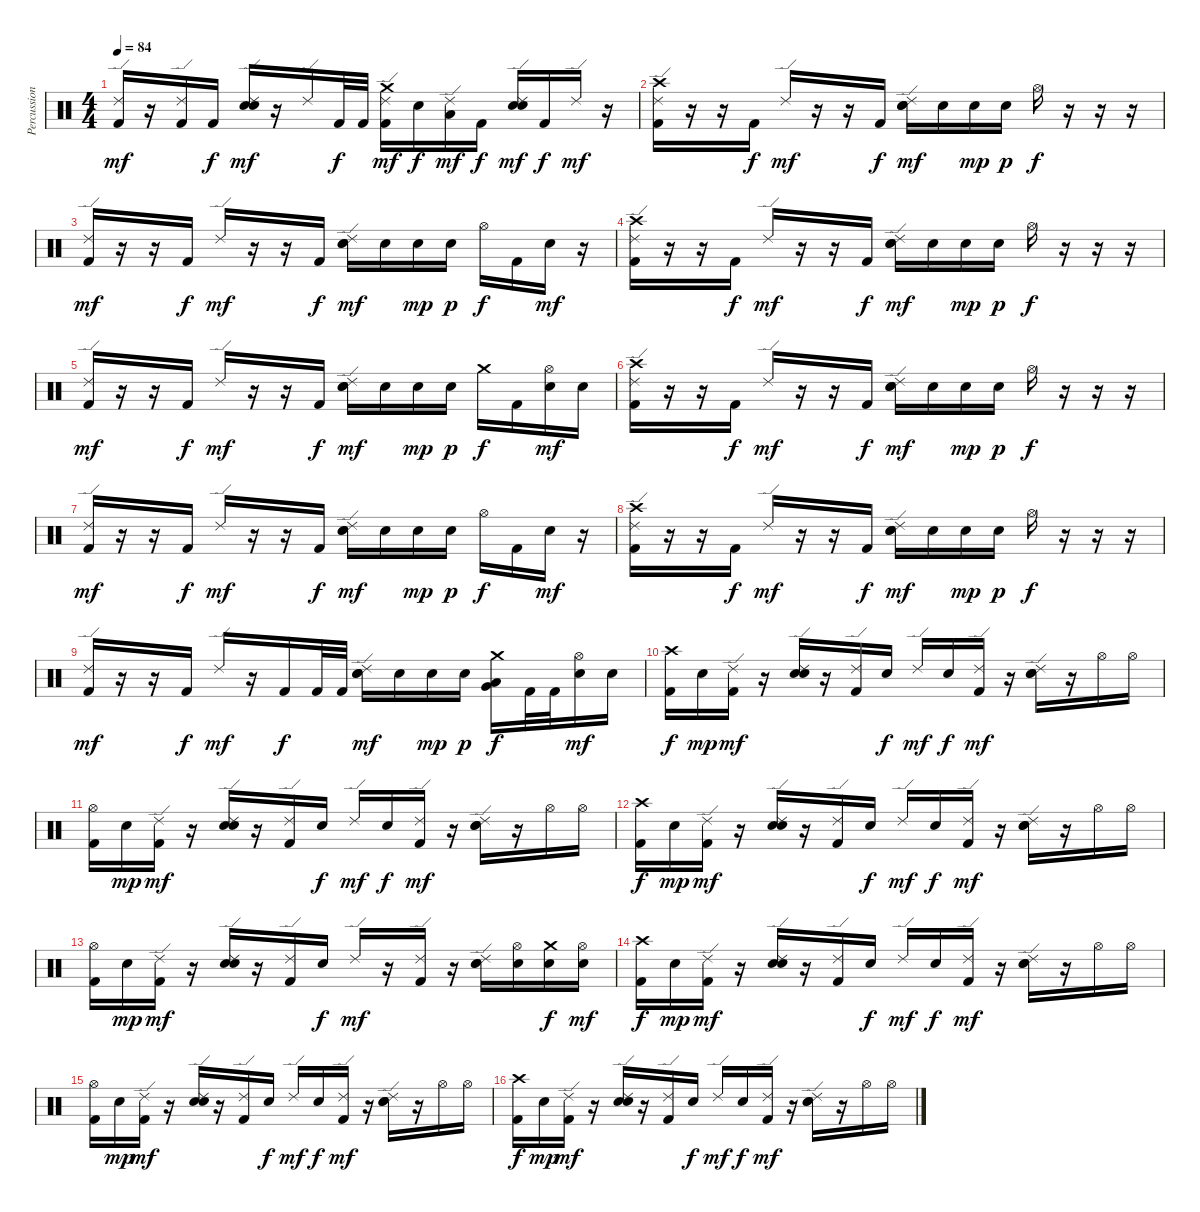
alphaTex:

\track ("Percussion" "Percussion") {instrument percussion}
\staff {score}
\articulation defaults
\ts (4 4)
\tempo 84
\clef neutral
\ks c
("Ride (edge) 2" "Kick (hit) 2").16{dy mf} r.16 ("Ride (edge) 2" "Kick (hit) 2").16 "Kick (hit) 2".16{dy f} ("Ride (edge) 2" "Snare (hit) 2" "Electric Snare (hit)").16{dy mf} r.16 "Ride (edge) 2".16 "Kick (hit) 2".32{dy f} "Kick (hit) 2".32 ("Ride (edge) 2" "Crash medium (hit)" "Kick (hit) 2").16{dy mf} "Electric Snare (hit)".16{dy f} ("Ride (edge) 2" "Low Tom (hit)").16{dy mf} "Kick (hit) 2".16{dy f} ("Ride (edge) 2" "Snare (hit) 2" "Electric Snare (hit)").16{dy mf} "Kick (hit) 2".16{dy f} "Ride (edge) 2".16{dy mf} r.16 |
("Ride (edge) 2" "Crash high (hit)" "Kick (hit) 2").16 r.16 r.16 "Kick (hit) 2".16{dy f} "Ride (edge) 2".16{dy mf} r.16 r.16 "Kick (hit) 2".16{dy f} ("Ride (edge) 2" "Snare (hit) 2" "Electric Snare (hit)").16{dy mf} "Electric Snare (hit)".16 "Electric Snare (hit)".16{dy mp} "Electric Snare (hit)".16{dy p} "Hi-Hat (open)".16{dy f} r.16 r.16 r.16 |
("Ride (edge) 2" "Kick (hit) 2").16{dy mf} r.16 r.16 "Kick (hit) 2".16{dy f} "Ride (edge) 2".16{dy mf} r.16 r.16 "Kick (hit) 2".16{dy f} ("Ride (edge) 2" "Snare (hit) 2" "Electric Snare (hit)").16{dy mf} "Electric Snare (hit)".16 "Electric Snare (hit)".16{dy mp} "Electric Snare (hit)".16{dy p} "Hi-Hat (open)".16{dy f} "Kick (hit) 2".16 "Electric Snare (hit)".16{dy mf} r.16 |
("Ride (edge) 2" "Crash high (hit)" "Kick (hit) 2").16 r.16 r.16 "Kick (hit) 2".16{dy f} "Ride (edge) 2".16{dy mf} r.16 r.16 "Kick (hit) 2".16{dy f} ("Ride (edge) 2" "Snare (hit) 2" "Electric Snare (hit)").16{dy mf} "Electric Snare (hit)".16 "Electric Snare (hit)".16{dy mp} "Electric Snare (hit)".16{dy p} "Hi-Hat (open)".16{dy f} r.16 r.16 r.16 |
("Ride (edge) 2" "Kick (hit) 2").16{dy mf} r.16 r.16 "Kick (hit) 2".16{dy f} "Ride (edge) 2".16{dy mf} r.16 r.16 "Kick (hit) 2".16{dy f} ("Ride (edge) 2" "Snare (hit) 2" "Electric Snare (hit)").16{dy mf} "Electric Snare (hit)".16 "Electric Snare (hit)".16{dy mp} "Electric Snare (hit)".16{dy p} "Crash medium (hit)".16{dy f} "Kick (hit) 2".16 ("Hi-Hat (open)" "Electric Snare (hit)").16{dy mf} "Electric Snare (hit)".16 |
("Ride (edge) 2" "Crash high (hit)" "Kick (hit) 2").16 r.16 r.16 "Kick (hit) 2".16{dy f} "Ride (edge) 2".16{dy mf} r.16 r.16 "Kick (hit) 2".16{dy f} ("Ride (edge) 2" "Snare (hit) 2" "Electric Snare (hit)").16{dy mf} "Electric Snare (hit)".16 "Electric Snare (hit)".16{dy mp} "Electric Snare (hit)".16{dy p} "Hi-Hat (open)".16{dy f} r.16 r.16 r.16 |
("Ride (edge) 2" "Kick (hit) 2").16{dy mf} r.16 r.16 "Kick (hit) 2".16{dy f} "Ride (edge) 2".16{dy mf} r.16 r.16 "Kick (hit) 2".16{dy f} ("Ride (edge) 2" "Snare (hit) 2" "Electric Snare (hit)").16{dy mf} "Electric Snare (hit)".16 "Electric Snare (hit)".16{dy mp} "Electric Snare (hit)".16{dy p} "Hi-Hat (open)".16{dy f} "Kick (hit) 2".16 "Electric Snare (hit)".16{dy mf} r.16 |
("Ride (edge) 2" "Crash high (hit)" "Kick (hit) 2").16 r.16 r.16 "Kick (hit) 2".16{dy f} "Ride (edge) 2".16{dy mf} r.16 r.16 "Kick (hit) 2".16{dy f} ("Ride (edge) 2" "Snare (hit) 2" "Electric Snare (hit)").16{dy mf} "Electric Snare (hit)".16 "Electric Snare (hit)".16{dy mp} "Electric Snare (hit)".16{dy p} "Hi-Hat (open)".16{dy f} r.16 r.16 r.16 |
("Ride (edge) 2" "Kick (hit) 2").16{dy mf} r.16 r.16 "Kick (hit) 2".16{dy f} "Ride (edge) 2".16{dy mf} r.16 "Kick (hit) 2".16{dy f} "Kick (hit) 2".32 "Kick (hit) 2".32 ("Ride (edge) 2" "Snare (hit) 2" "Electric Snare (hit)").16{dy mf} "Electric Snare (hit)".16 "Electric Snare (hit)".16{dy mp} "Electric Snare (hit)".16{dy p} ("Crash medium (hit)" "Low Tom (hit)" "Very Low Tom (hit)").16{dy f} "Kick (hit) 2".32 "Kick (hit) 2".32 ("Hi-Hat (open)" "Electric Snare (hit)").16{dy mf} "Electric Snare (hit)".16 |
("Crash high (hit)" "Kick (hit) 2").16{dy f} "Electric Snare (hit)".16{dy mp} ("Ride (edge) 2" "Kick (hit) 2").16{dy mf} r.16 ("Ride (edge) 2" "Snare (hit) 2" "Electric Snare (hit)").16 r.16 ("Ride (edge) 2" "Kick (hit) 2").16 "Electric Snare (hit)".16{dy f} "Ride (edge) 2".16{dy mf} "Electric Snare (hit)".16{dy f} ("Ride (edge) 2" "Kick (hit) 2").16{dy mf} r.16 ("Ride (edge) 2" "Snare (hit) 2" "Electric Snare (hit)").16 r.16 "Hi-Hat (open)".16 "Hi-Hat (open)".16 |
("Hi-Hat (open)" "Kick (hit) 2").16 "Electric Snare (hit)".16{dy mp} ("Ride (edge) 2" "Kick (hit) 2").16{dy mf} r.16 ("Ride (edge) 2" "Snare (hit) 2" "Electric Snare (hit)").16 r.16 ("Ride (edge) 2" "Kick (hit) 2").16 "Electric Snare (hit)".16{dy f} "Ride (edge) 2".16{dy mf} "Electric Snare (hit)".16{dy f} ("Ride (edge) 2" "Kick (hit) 2").16{dy mf} r.16 ("Ride (edge) 2" "Snare (hit) 2" "Electric Snare (hit)").16 r.16 "Hi-Hat (open)".16 "Hi-Hat (open)".16 |
("Crash high (hit)" "Kick (hit) 2").16{dy f} "Electric Snare (hit)".16{dy mp} ("Ride (edge) 2" "Kick (hit) 2").16{dy mf} r.16 ("Ride (edge) 2" "Snare (hit) 2" "Electric Snare (hit)").16 r.16 ("Ride (edge) 2" "Kick (hit) 2").16 "Electric Snare (hit)".16{dy f} "Ride (edge) 2".16{dy mf} "Electric Snare (hit)".16{dy f} ("Ride (edge) 2" "Kick (hit) 2").16{dy mf} r.16 ("Ride (edge) 2" "Snare (hit) 2" "Electric Snare (hit)").16 r.16 "Hi-Hat (open)".16 "Hi-Hat (open)".16 |
("Hi-Hat (open)" "Kick (hit) 2").16 "Electric Snare (hit)".16{dy mp} ("Ride (edge) 2" "Kick (hit) 2").16{dy mf} r.16 ("Ride (edge) 2" "Snare (hit) 2" "Electric Snare (hit)").16 r.16 ("Ride (edge) 2" "Kick (hit) 2").16 "Electric Snare (hit)".16{dy f} "Ride (edge) 2".16{dy mf} r.16 ("Ride (edge) 2" "Kick (hit) 2").16 r.16 ("Ride (edge) 2" "Snare (hit) 2" "Electric Snare (hit)").16 ("Hi-Hat (open)" "Electric Snare (hit)").16 ("Crash medium (hit)" "Electric Snare (hit)").16{dy f} ("Hi-Hat (open)" "Electric Snare (hit)").16{dy mf} |
("Crash high (hit)" "Kick (hit) 2").16{dy f} "Electric Snare (hit)".16{dy mp} ("Ride (edge) 2" "Kick (hit) 2").16{dy mf} r.16 ("Ride (edge) 2" "Snare (hit) 2" "Electric Snare (hit)").16 r.16 ("Ride (edge) 2" "Kick (hit) 2").16 "Electric Snare (hit)".16{dy f} "Ride (edge) 2".16{dy mf} "Electric Snare (hit)".16{dy f} ("Ride (edge) 2" "Kick (hit) 2").16{dy mf} r.16 ("Ride (edge) 2" "Snare (hit) 2" "Electric Snare (hit)").16 r.16 "Hi-Hat (open)".16 "Hi-Hat (open)".16 |
("Hi-Hat (open)" "Kick (hit) 2").16 "Electric Snare (hit)".16{dy mp} ("Ride (edge) 2" "Kick (hit) 2").16{dy mf} r.16 ("Ride (edge) 2" "Snare (hit) 2" "Electric Snare (hit)").16 r.16 ("Ride (edge) 2" "Kick (hit) 2").16 "Electric Snare (hit)".16{dy f} "Ride (edge) 2".16{dy mf} "Electric Snare (hit)".16{dy f} ("Ride (edge) 2" "Kick (hit) 2").16{dy mf} r.16 ("Ride (edge) 2" "Snare (hit) 2" "Electric Snare (hit)").16 r.16 "Hi-Hat (open)".16 "Hi-Hat (open)".16 |
("Crash high (hit)" "Kick (hit) 2").16{dy f} "Electric Snare (hit)".16{dy mp} ("Ride (edge) 2" "Kick (hit) 2").16{dy mf} r.16 ("Ride (edge) 2" "Snare (hit) 2" "Electric Snare (hit)").16 r.16 ("Ride (edge) 2" "Kick (hit) 2").16 "Electric Snare (hit)".16{dy f} "Ride (edge) 2".16{dy mf} "Electric Snare (hit)".16{dy f} ("Ride (edge) 2" "Kick (hit) 2").16{dy mf} r.16 ("Ride (edge) 2" "Snare (hit) 2" "Electric Snare (hit)").16 r.16 "Hi-Hat (open)".16 "Hi-Hat (open)".16
